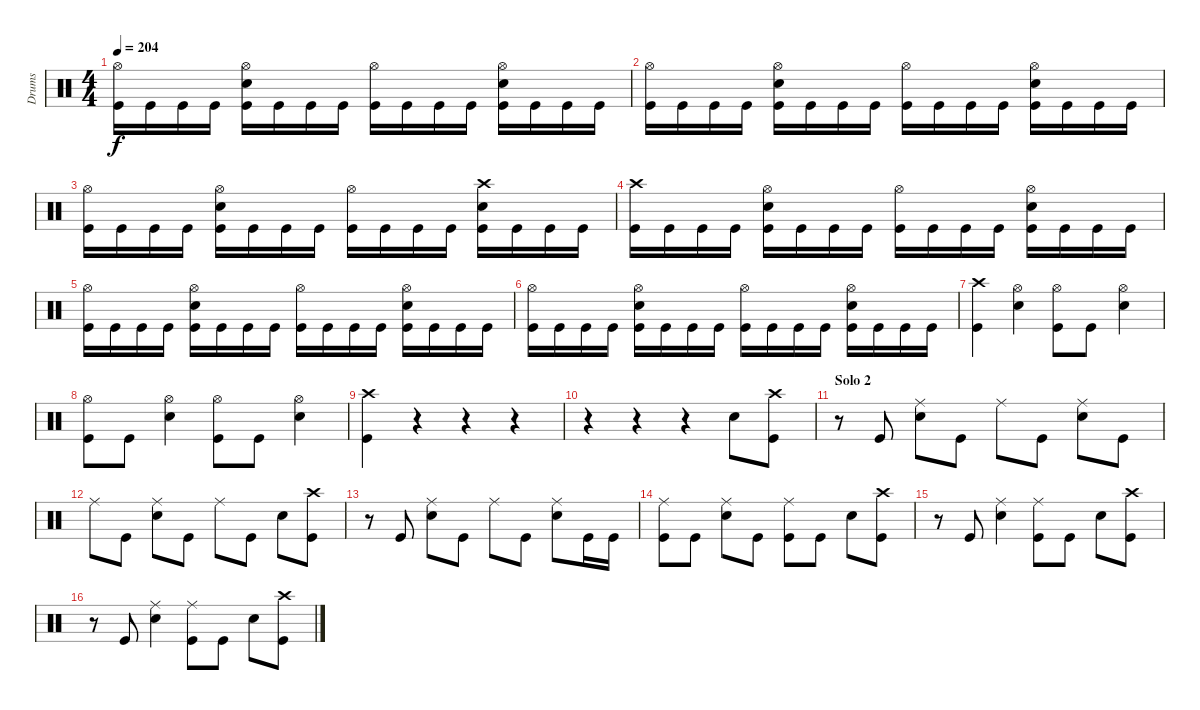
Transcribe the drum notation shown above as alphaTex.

\track ("Drums" "Drums") {instrument percussion}
\staff {score}
\articulation defaults
\ts (4 4)
\tempo 204
\clef neutral
\ks c
("Hi-Hat (open)" "Kick (hit)").16{dy f} "Kick (hit)".16 "Kick (hit)".16 "Kick (hit)".16 ("Hi-Hat (open)" "Snare (hit) 2" "Kick (hit)").16 "Kick (hit)".16 "Kick (hit)".16 "Kick (hit)".16 ("Hi-Hat (open)" "Kick (hit)").16 "Kick (hit)".16 "Kick (hit)".16 "Kick (hit)".16 ("Hi-Hat (open)" "Snare (hit) 2" "Kick (hit)").16 "Kick (hit)".16 "Kick (hit)".16 "Kick (hit)".16 |
("Hi-Hat (open)" "Kick (hit)").16 "Kick (hit)".16 "Kick (hit)".16 "Kick (hit)".16 ("Hi-Hat (open)" "Snare (hit) 2" "Kick (hit)").16 "Kick (hit)".16 "Kick (hit)".16 "Kick (hit)".16 ("Hi-Hat (open)" "Kick (hit)").16 "Kick (hit)".16 "Kick (hit)".16 "Kick (hit)".16 ("Hi-Hat (open)" "Snare (hit) 2" "Kick (hit)").16 "Kick (hit)".16 "Kick (hit)".16 "Kick (hit)".16 |
("Hi-Hat (open)" "Kick (hit)").16 "Kick (hit)".16 "Kick (hit)".16 "Kick (hit)".16 ("Hi-Hat (open)" "Snare (hit) 2" "Kick (hit)").16 "Kick (hit)".16 "Kick (hit)".16 "Kick (hit)".16 ("Hi-Hat (open)" "Kick (hit)").16 "Kick (hit)".16 "Kick (hit)".16 "Kick (hit)".16 ("Crash high (hit)" "Snare (hit) 2" "Kick (hit)").16 "Kick (hit)".16 "Kick (hit)".16 "Kick (hit)".16 |
("Crash high (hit)" "Kick (hit)").16 "Kick (hit)".16 "Kick (hit)".16 "Kick (hit)".16 ("Hi-Hat (open)" "Snare (hit) 2" "Kick (hit)").16 "Kick (hit)".16 "Kick (hit)".16 "Kick (hit)".16 ("Hi-Hat (open)" "Kick (hit)").16 "Kick (hit)".16 "Kick (hit)".16 "Kick (hit)".16 ("Hi-Hat (open)" "Snare (hit) 2" "Kick (hit)").16 "Kick (hit)".16 "Kick (hit)".16 "Kick (hit)".16 |
("Hi-Hat (open)" "Kick (hit)").16 "Kick (hit)".16 "Kick (hit)".16 "Kick (hit)".16 ("Hi-Hat (open)" "Snare (hit) 2" "Kick (hit)").16 "Kick (hit)".16 "Kick (hit)".16 "Kick (hit)".16 ("Hi-Hat (open)" "Kick (hit)").16 "Kick (hit)".16 "Kick (hit)".16 "Kick (hit)".16 ("Hi-Hat (open)" "Snare (hit) 2" "Kick (hit)").16 "Kick (hit)".16 "Kick (hit)".16 "Kick (hit)".16 |
("Hi-Hat (open)" "Kick (hit)").16 "Kick (hit)".16 "Kick (hit)".16 "Kick (hit)".16 ("Hi-Hat (open)" "Snare (hit) 2" "Kick (hit)").16 "Kick (hit)".16 "Kick (hit)".16 "Kick (hit)".16 ("Hi-Hat (open)" "Kick (hit)").16 "Kick (hit)".16 "Kick (hit)".16 "Kick (hit)".16 ("Hi-Hat (open)" "Snare (hit) 2" "Kick (hit)").16 "Kick (hit)".16 "Kick (hit)".16 "Kick (hit)".16 |
("Crash high (hit)" "Kick (hit)").4 ("Hi-Hat (open)" "Snare (hit) 2").4 ("Hi-Hat (open)" "Kick (hit)").8 "Kick (hit)".8 ("Hi-Hat (open)" "Snare (hit) 2").4 |
("Hi-Hat (open)" "Kick (hit)").8 "Kick (hit)".8 ("Hi-Hat (open)" "Snare (hit) 2").4 ("Hi-Hat (open)" "Kick (hit)").8 "Kick (hit)".8 ("Hi-Hat (open)" "Snare (hit) 2").4 |
("Crash high (hit)" "Kick (hit)").4 r.4 r.4 r.4 |
r.4 r.4 r.4 "Snare (hit) 2".8 ("Crash high (hit)" "Kick (hit)").8 |
\section ("" "Solo 2")
r.8 "Kick (hit)".8 ("Ride (middle)" "Snare (hit) 2").8 "Kick (hit)".8 "Ride (middle)".8 "Kick (hit)".8 ("Ride (middle)" "Snare (hit) 2").8 "Kick (hit)".8 |
"Ride (middle)".8 "Kick (hit)".8 ("Ride (middle)" "Snare (hit) 2").8 "Kick (hit)".8 "Ride (middle)".8 "Kick (hit)".8 "Snare (hit) 2".8 ("Crash high (hit)" "Kick (hit)").8 |
r.8 "Kick (hit)".8 ("Ride (middle)" "Snare (hit) 2").8 "Kick (hit)".8 "Ride (middle)".8 "Kick (hit)".8 ("Ride (middle)" "Snare (hit) 2").8 "Kick (hit)".16 "Kick (hit)".16 |
("Ride (middle)" "Kick (hit)").8 "Kick (hit)".8 ("Ride (middle)" "Snare (hit) 2").8 "Kick (hit)".8 ("Ride (middle)" "Kick (hit)").8 "Kick (hit)".8 "Snare (hit) 2".8 ("Crash high (hit)" "Kick (hit)").8 |
r.8 "Kick (hit)".8 ("Ride (middle)" "Snare (hit) 2").4 ("Ride (middle)" "Kick (hit)").8 "Kick (hit)".8 "Snare (hit) 2".8 ("Crash high (hit)" "Kick (hit)").8 |
r.8 "Kick (hit)".8 ("Ride (middle)" "Snare (hit) 2").4 ("Ride (middle)" "Kick (hit)").8 "Kick (hit)".8 "Snare (hit) 2".8 ("Crash high (hit)" "Kick (hit)").8
